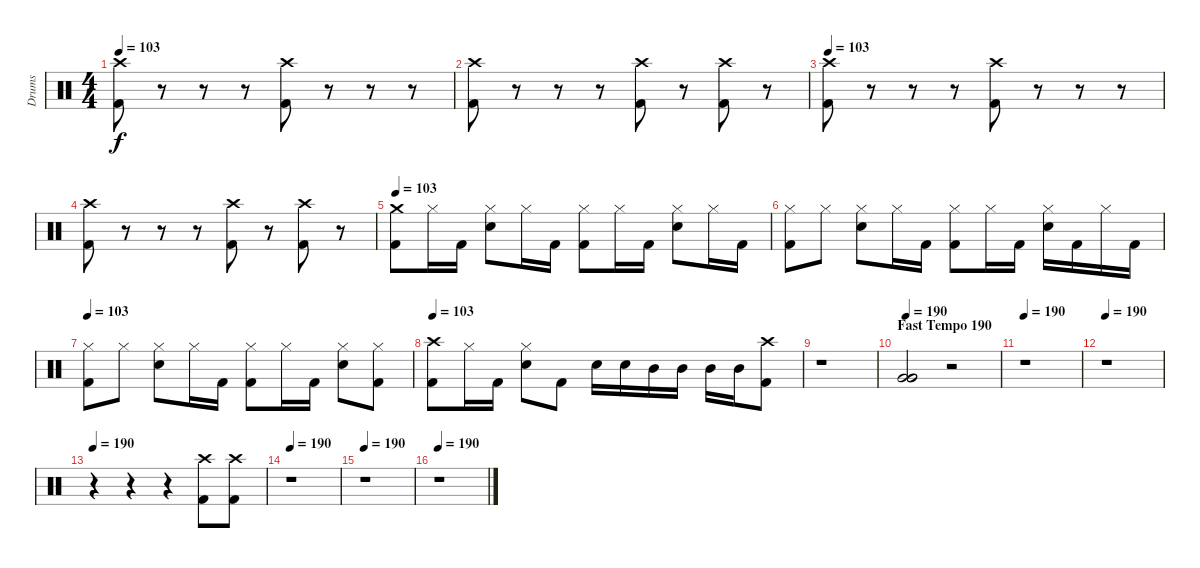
\track ("Drums" "Drums") {instrument percussion}
\staff {score}
\articulation defaults
\ts (4 4)
\tempo 103
\clef neutral
\ks c
("Crash high (hit)" "Kick (hit) 2").8{dy f} r.8 r.8 r.8 ("Crash high (hit)" "Kick (hit) 2").8 r.8 r.8 r.8 |
("Crash high (hit)" "Kick (hit) 2").8 r.8 r.8 r.8 ("Crash high (hit)" "Kick (hit) 2").8 r.8 ("Crash high (hit)" "Kick (hit) 2").8 r.8 |
\tempo 103
("Crash high (hit)" "Kick (hit) 2").8 r.8 r.8 r.8 ("Crash high (hit)" "Kick (hit) 2").8 r.8 r.8 r.8 |
("Crash high (hit)" "Kick (hit) 2").8 r.8 r.8 r.8 ("Crash high (hit)" "Kick (hit) 2").8 r.8 ("Crash high (hit)" "Kick (hit) 2").8 r.8 |
\tempo 103
("Crash medium (hit)" "Kick (hit) 2").8 "Hi-Hat (closed)".16 "Kick (hit) 2".16 ("Hi-Hat (closed)" "Electric Snare (hit)").8 "Hi-Hat (closed)".16 "Kick (hit) 2".16 ("Hi-Hat (closed)" "Kick (hit) 2").8 "Hi-Hat (closed)".16 "Kick (hit) 2".16 ("Hi-Hat (closed)" "Electric Snare (hit)").8 "Hi-Hat (closed)".16 "Kick (hit) 2".16 |
("Hi-Hat (closed)" "Kick (hit) 2").8 "Hi-Hat (closed)".8 ("Hi-Hat (closed)" "Electric Snare (hit)").8 "Hi-Hat (closed)".16 "Kick (hit) 2".16 ("Hi-Hat (closed)" "Kick (hit) 2").8 "Hi-Hat (closed)".16 "Kick (hit) 2".16 ("Hi-Hat (closed)" "Electric Snare (hit)").16 "Kick (hit) 2".16 "Hi-Hat (closed)".16 "Kick (hit) 2".16 |
\tempo 103
("Hi-Hat (closed)" "Kick (hit) 2").8 "Hi-Hat (closed)".8 ("Hi-Hat (closed)" "Electric Snare (hit)").8 "Hi-Hat (closed)".16 "Kick (hit) 2".16 ("Hi-Hat (closed)" "Kick (hit) 2").8 "Hi-Hat (closed)".16 "Kick (hit) 2".16 ("Hi-Hat (closed)" "Electric Snare (hit)").8 ("Hi-Hat (closed)" "Kick (hit) 2").8 |
\tempo 103
("Crash high (hit)" "Kick (hit) 2").8 "Hi-Hat (closed)".16 "Kick (hit) 2".16 ("Hi-Hat (closed)" "Electric Snare (hit)").8 "Kick (hit) 2".8 "Electric Snare (hit)".16 "Electric Snare (hit)".16 "Mid Tom (hit)".16 "Mid Tom (hit)".16 "Mid Tom (hit)".16 "Mid Tom (hit)".16 ("Crash high (hit)" "Kick (hit) 2").8 |
r.1 |
\section ("" "Fast Tempo 190")
\tempo 190
("Very Low Tom (hit)" "Very Low Tom (hit)" "Very Low Tom (hit)").2 r.2 |
\tempo 190
r.1 |
\tempo 190
r.1 |
\tempo 190
r.4 r.4 r.4 ("Crash high (hit)" "Kick (hit) 2").8 ("Crash high (hit)" "Kick (hit) 2").8 |
\tempo 190
r.1 |
\tempo 190
r.1 |
\tempo 190
r.1
